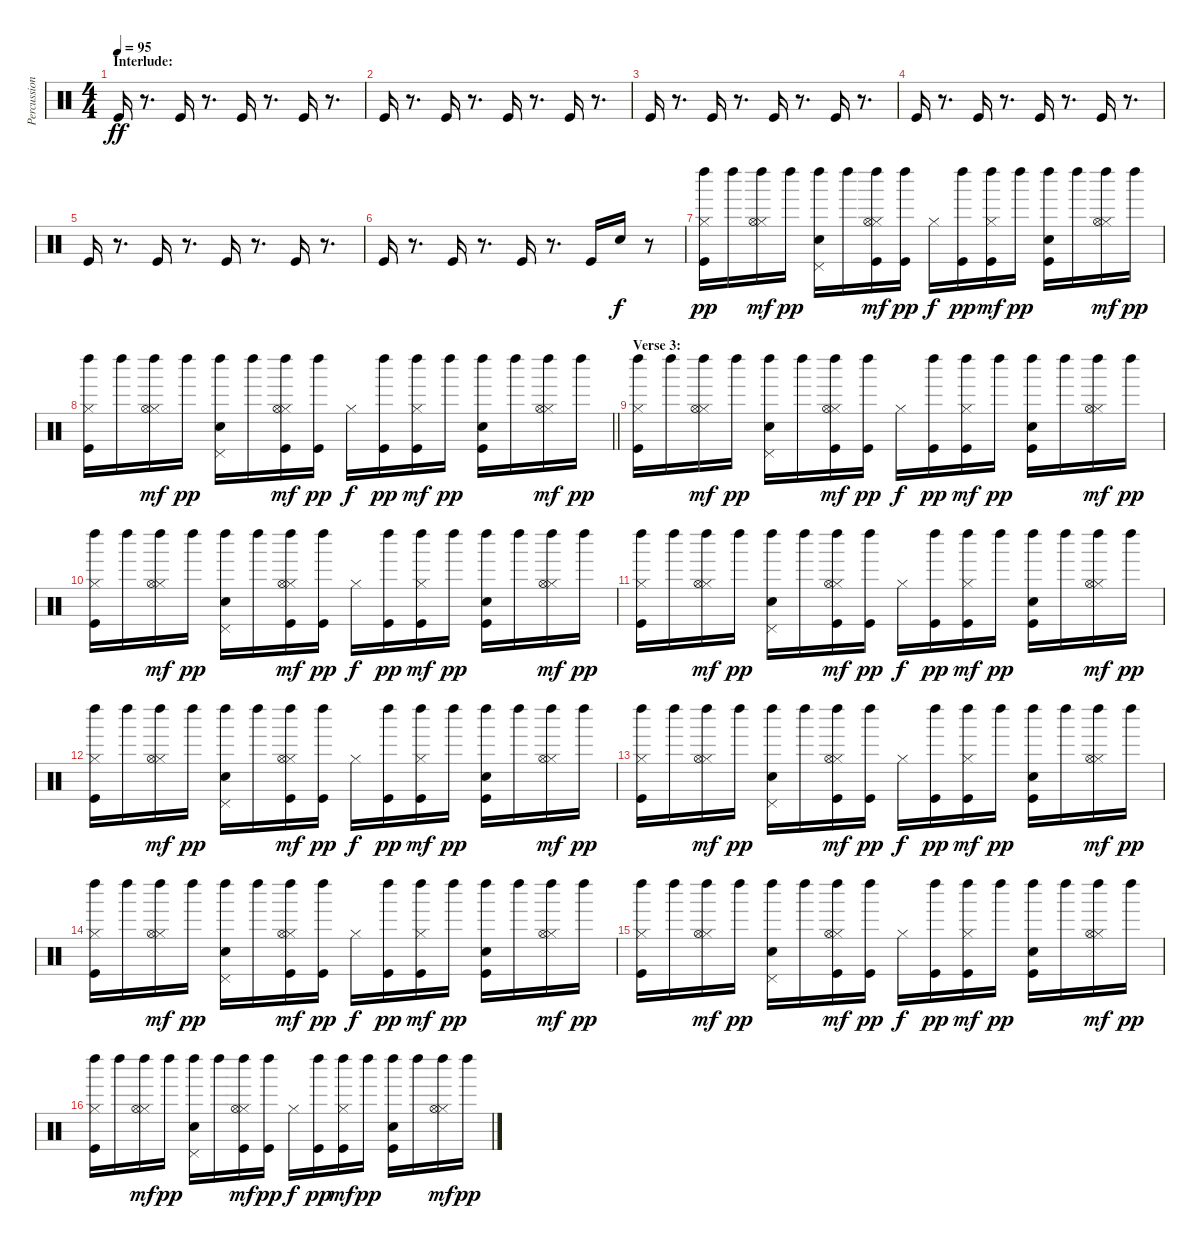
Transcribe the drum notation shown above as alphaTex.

\track ("Percussion" "Percussion") {instrument percussion}
\staff {score}
\articulation defaults
\ts (4 4)
\section ("" "Interlude:")
\tempo 95
\clef neutral
\ks c "Kick (hit)".16{dy ff}
r.8{d} "Kick (hit)".16 r.8{d} "Kick (hit)".16 r.8{d} "Kick (hit)".16 r.8{d} |
"Kick (hit)".16 r.8{d} "Kick (hit)".16 r.8{d} "Kick (hit)".16 r.8{d} "Kick (hit)".16 r.8{d} |
"Kick (hit)".16 r.8{d} "Kick (hit)".16 r.8{d} "Kick (hit)".16 r.8{d} "Kick (hit)".16 r.8{d} |
"Kick (hit)".16 r.8{d} "Kick (hit)".16 r.8{d} "Kick (hit)".16 r.8{d} "Kick (hit)".16 r.8{d} |
"Kick (hit)".16 r.8{d} "Kick (hit)".16 r.8{d} "Kick (hit)".16 r.8{d} "Kick (hit)".16 r.8{d} |
"Kick (hit)".16 r.8{d} "Kick (hit)".16 r.8{d} "Kick (hit)".16 r.8{d} "Kick (hit)".16 "Snare (hit) 2".16{dy f} r.8 |
("Kick (hit)" "Hi-Hat (closed)" "Left Maraca (hit)").16{dy pp} "Left Maraca (hit)".16 ("Hi-Hat (closed)" "Hi-Hat (open)" "Left Maraca (hit)").16{dy mf} "Left Maraca (hit)".16{dy pp} ("Snare (hit) 2" "Pedal Hi-Hat (hit)" "Left Maraca (hit)").16 "Left Maraca (hit)".16 ("Kick (hit)" "Hi-Hat (closed)" "Hi-Hat (open)" "Left Maraca (hit)").16{dy mf} ("Left Maraca (hit)" "Kick (hit)").16{dy pp} "Hi-Hat (closed)".16{dy f} ("Left Maraca (hit)" "Kick (hit)").16{dy pp} ("Hi-Hat (closed)" "Kick (hit)" "Left Maraca (hit)").16{dy mf} "Left Maraca (hit)".16{dy pp} ("Snare (hit) 2" "Kick (hit)" "Left Maraca (hit)").16 "Left Maraca (hit)".16 ("Hi-Hat (closed)" "Hi-Hat (open)" "Left Maraca (hit)").16{dy mf} "Left Maraca (hit)".16{dy pp} |
\barLineRight lightlight
("Kick (hit)" "Hi-Hat (closed)" "Left Maraca (hit)").16 "Left Maraca (hit)".16 ("Hi-Hat (closed)" "Hi-Hat (open)" "Left Maraca (hit)").16{dy mf} "Left Maraca (hit)".16{dy pp} ("Snare (hit) 2" "Pedal Hi-Hat (hit)" "Left Maraca (hit)").16 "Left Maraca (hit)".16 ("Kick (hit)" "Hi-Hat (closed)" "Hi-Hat (open)" "Left Maraca (hit)").16{dy mf} ("Left Maraca (hit)" "Kick (hit)").16{dy pp} "Hi-Hat (closed)".16{dy f} ("Left Maraca (hit)" "Kick (hit)").16{dy pp} ("Hi-Hat (closed)" "Kick (hit)" "Left Maraca (hit)").16{dy mf} "Left Maraca (hit)".16{dy pp} ("Snare (hit) 2" "Kick (hit)" "Left Maraca (hit)").16 "Left Maraca (hit)".16 ("Hi-Hat (closed)" "Hi-Hat (open)" "Left Maraca (hit)").16{dy mf} "Left Maraca (hit)".16{dy pp} |
\section ("" "Verse 3:")
("Kick (hit)" "Hi-Hat (closed)" "Left Maraca (hit)").16 "Left Maraca (hit)".16 ("Hi-Hat (closed)" "Hi-Hat (open)" "Left Maraca (hit)").16{dy mf} "Left Maraca (hit)".16{dy pp} ("Snare (hit) 2" "Pedal Hi-Hat (hit)" "Left Maraca (hit)").16 "Left Maraca (hit)".16 ("Kick (hit)" "Hi-Hat (closed)" "Hi-Hat (open)" "Left Maraca (hit)").16{dy mf} ("Left Maraca (hit)" "Kick (hit)").16{dy pp} "Hi-Hat (closed)".16{dy f} ("Left Maraca (hit)" "Kick (hit)").16{dy pp} ("Hi-Hat (closed)" "Kick (hit)" "Left Maraca (hit)").16{dy mf} "Left Maraca (hit)".16{dy pp} ("Snare (hit) 2" "Kick (hit)" "Left Maraca (hit)").16 "Left Maraca (hit)".16 ("Hi-Hat (closed)" "Hi-Hat (open)" "Left Maraca (hit)").16{dy mf} "Left Maraca (hit)".16{dy pp} |
("Kick (hit)" "Hi-Hat (closed)" "Left Maraca (hit)").16 "Left Maraca (hit)".16 ("Hi-Hat (closed)" "Hi-Hat (open)" "Left Maraca (hit)").16{dy mf} "Left Maraca (hit)".16{dy pp} ("Snare (hit) 2" "Pedal Hi-Hat (hit)" "Left Maraca (hit)").16 "Left Maraca (hit)".16 ("Kick (hit)" "Hi-Hat (closed)" "Hi-Hat (open)" "Left Maraca (hit)").16{dy mf} ("Left Maraca (hit)" "Kick (hit)").16{dy pp} "Hi-Hat (closed)".16{dy f} ("Left Maraca (hit)" "Kick (hit)").16{dy pp} ("Hi-Hat (closed)" "Kick (hit)" "Left Maraca (hit)").16{dy mf} "Left Maraca (hit)".16{dy pp} ("Snare (hit) 2" "Kick (hit)" "Left Maraca (hit)").16 "Left Maraca (hit)".16 ("Hi-Hat (closed)" "Hi-Hat (open)" "Left Maraca (hit)").16{dy mf} "Left Maraca (hit)".16{dy pp} |
("Kick (hit)" "Hi-Hat (closed)" "Left Maraca (hit)").16 "Left Maraca (hit)".16 ("Hi-Hat (closed)" "Hi-Hat (open)" "Left Maraca (hit)").16{dy mf} "Left Maraca (hit)".16{dy pp} ("Snare (hit) 2" "Pedal Hi-Hat (hit)" "Left Maraca (hit)").16 "Left Maraca (hit)".16 ("Kick (hit)" "Hi-Hat (closed)" "Hi-Hat (open)" "Left Maraca (hit)").16{dy mf} ("Left Maraca (hit)" "Kick (hit)").16{dy pp} "Hi-Hat (closed)".16{dy f} ("Left Maraca (hit)" "Kick (hit)").16{dy pp} ("Hi-Hat (closed)" "Kick (hit)" "Left Maraca (hit)").16{dy mf} "Left Maraca (hit)".16{dy pp} ("Snare (hit) 2" "Kick (hit)" "Left Maraca (hit)").16 "Left Maraca (hit)".16 ("Hi-Hat (closed)" "Hi-Hat (open)" "Left Maraca (hit)").16{dy mf} "Left Maraca (hit)".16{dy pp} |
("Kick (hit)" "Hi-Hat (closed)" "Left Maraca (hit)").16 "Left Maraca (hit)".16 ("Hi-Hat (closed)" "Hi-Hat (open)" "Left Maraca (hit)").16{dy mf} "Left Maraca (hit)".16{dy pp} ("Snare (hit) 2" "Pedal Hi-Hat (hit)" "Left Maraca (hit)").16 "Left Maraca (hit)".16 ("Kick (hit)" "Hi-Hat (closed)" "Hi-Hat (open)" "Left Maraca (hit)").16{dy mf} ("Left Maraca (hit)" "Kick (hit)").16{dy pp} "Hi-Hat (closed)".16{dy f} ("Left Maraca (hit)" "Kick (hit)").16{dy pp} ("Hi-Hat (closed)" "Kick (hit)" "Left Maraca (hit)").16{dy mf} "Left Maraca (hit)".16{dy pp} ("Snare (hit) 2" "Kick (hit)" "Left Maraca (hit)").16 "Left Maraca (hit)".16 ("Hi-Hat (closed)" "Hi-Hat (open)" "Left Maraca (hit)").16{dy mf} "Left Maraca (hit)".16{dy pp} |
("Kick (hit)" "Hi-Hat (closed)" "Left Maraca (hit)").16 "Left Maraca (hit)".16 ("Hi-Hat (closed)" "Hi-Hat (open)" "Left Maraca (hit)").16{dy mf} "Left Maraca (hit)".16{dy pp} ("Snare (hit) 2" "Pedal Hi-Hat (hit)" "Left Maraca (hit)").16 "Left Maraca (hit)".16 ("Kick (hit)" "Hi-Hat (closed)" "Hi-Hat (open)" "Left Maraca (hit)").16{dy mf} ("Left Maraca (hit)" "Kick (hit)").16{dy pp} "Hi-Hat (closed)".16{dy f} ("Left Maraca (hit)" "Kick (hit)").16{dy pp} ("Hi-Hat (closed)" "Kick (hit)" "Left Maraca (hit)").16{dy mf} "Left Maraca (hit)".16{dy pp} ("Snare (hit) 2" "Kick (hit)" "Left Maraca (hit)").16 "Left Maraca (hit)".16 ("Hi-Hat (closed)" "Hi-Hat (open)" "Left Maraca (hit)").16{dy mf} "Left Maraca (hit)".16{dy pp} |
("Kick (hit)" "Hi-Hat (closed)" "Left Maraca (hit)").16 "Left Maraca (hit)".16 ("Hi-Hat (closed)" "Hi-Hat (open)" "Left Maraca (hit)").16{dy mf} "Left Maraca (hit)".16{dy pp} ("Snare (hit) 2" "Pedal Hi-Hat (hit)" "Left Maraca (hit)").16 "Left Maraca (hit)".16 ("Kick (hit)" "Hi-Hat (closed)" "Hi-Hat (open)" "Left Maraca (hit)").16{dy mf} ("Left Maraca (hit)" "Kick (hit)").16{dy pp} "Hi-Hat (closed)".16{dy f} ("Left Maraca (hit)" "Kick (hit)").16{dy pp} ("Hi-Hat (closed)" "Kick (hit)" "Left Maraca (hit)").16{dy mf} "Left Maraca (hit)".16{dy pp} ("Snare (hit) 2" "Kick (hit)" "Left Maraca (hit)").16 "Left Maraca (hit)".16 ("Hi-Hat (closed)" "Hi-Hat (open)" "Left Maraca (hit)").16{dy mf} "Left Maraca (hit)".16{dy pp} |
("Kick (hit)" "Hi-Hat (closed)" "Left Maraca (hit)").16 "Left Maraca (hit)".16 ("Hi-Hat (closed)" "Hi-Hat (open)" "Left Maraca (hit)").16{dy mf} "Left Maraca (hit)".16{dy pp} ("Snare (hit) 2" "Pedal Hi-Hat (hit)" "Left Maraca (hit)").16 "Left Maraca (hit)".16 ("Kick (hit)" "Hi-Hat (closed)" "Hi-Hat (open)" "Left Maraca (hit)").16{dy mf} ("Left Maraca (hit)" "Kick (hit)").16{dy pp} "Hi-Hat (closed)".16{dy f} ("Left Maraca (hit)" "Kick (hit)").16{dy pp} ("Hi-Hat (closed)" "Kick (hit)" "Left Maraca (hit)").16{dy mf} "Left Maraca (hit)".16{dy pp} ("Snare (hit) 2" "Kick (hit)" "Left Maraca (hit)").16 "Left Maraca (hit)".16 ("Hi-Hat (closed)" "Hi-Hat (open)" "Left Maraca (hit)").16{dy mf} "Left Maraca (hit)".16{dy pp} |
("Kick (hit)" "Hi-Hat (closed)" "Left Maraca (hit)").16 "Left Maraca (hit)".16 ("Hi-Hat (closed)" "Hi-Hat (open)" "Left Maraca (hit)").16{dy mf} "Left Maraca (hit)".16{dy pp} ("Snare (hit) 2" "Pedal Hi-Hat (hit)" "Left Maraca (hit)").16 "Left Maraca (hit)".16 ("Kick (hit)" "Hi-Hat (closed)" "Hi-Hat (open)" "Left Maraca (hit)").16{dy mf} ("Left Maraca (hit)" "Kick (hit)").16{dy pp} "Hi-Hat (closed)".16{dy f} ("Left Maraca (hit)" "Kick (hit)").16{dy pp} ("Hi-Hat (closed)" "Kick (hit)" "Left Maraca (hit)").16{dy mf} "Left Maraca (hit)".16{dy pp} ("Snare (hit) 2" "Kick (hit)" "Left Maraca (hit)").16 "Left Maraca (hit)".16 ("Hi-Hat (closed)" "Hi-Hat (open)" "Left Maraca (hit)").16{dy mf} "Left Maraca (hit)".16{dy pp}
